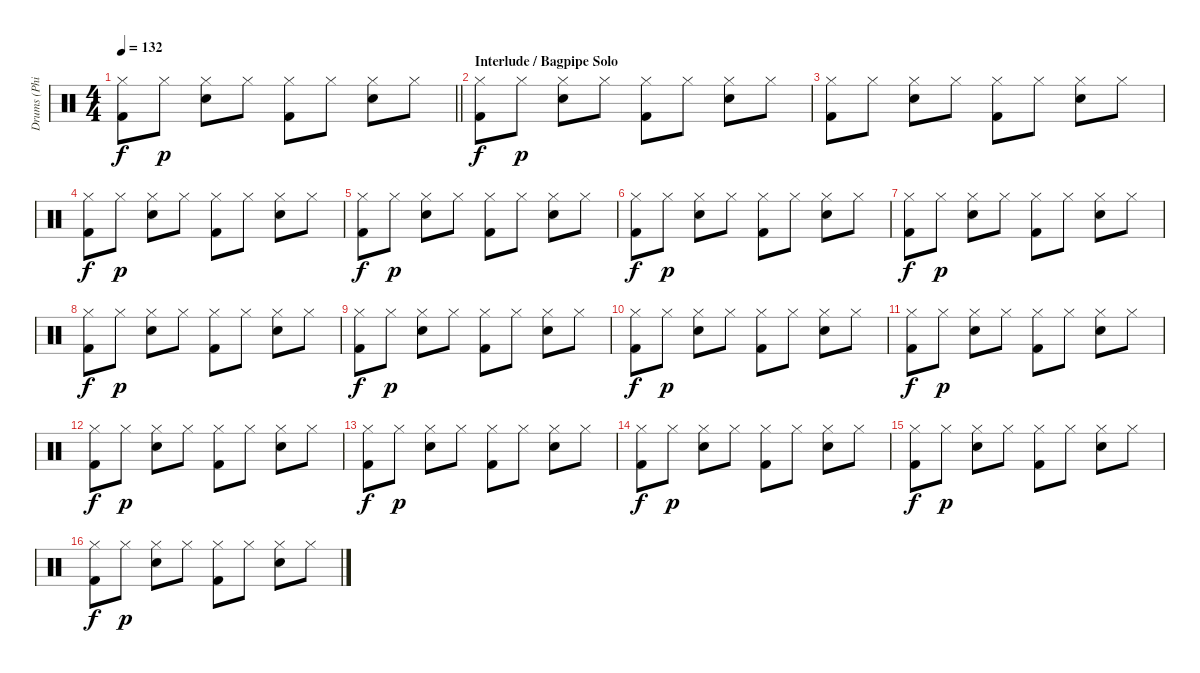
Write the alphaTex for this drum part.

\track ("Drums (Phil Rudd)" "Drums (Phi") {instrument percussion}
\staff {score}
\articulation defaults
\ts (4 4)
\tempo 132
\clef neutral
\barLineRight lightlight
\ks c
("Hi-Hat (closed)" "Kick (hit) 2").8{dy f} "Hi-Hat (closed)".8{dy p} ("Hi-Hat (closed)" "Snare (hit) 2").8 "Hi-Hat (closed)".8 ("Hi-Hat (closed)" "Kick (hit) 2").8 "Hi-Hat (closed)".8 ("Hi-Hat (closed)" "Snare (hit) 2").8 "Hi-Hat (closed)".8 |
\section ("" "Interlude / Bagpipe Solo")
("Hi-Hat (closed)" "Kick (hit) 2").8{dy f} "Hi-Hat (closed)".8{dy p} ("Hi-Hat (closed)" "Snare (hit) 2").8 "Hi-Hat (closed)".8 ("Hi-Hat (closed)" "Kick (hit) 2").8 "Hi-Hat (closed)".8 ("Hi-Hat (closed)" "Snare (hit) 2").8 "Hi-Hat (closed)".8 |
("Hi-Hat (closed)" "Kick (hit) 2").8 "Hi-Hat (closed)".8 ("Hi-Hat (closed)" "Snare (hit) 2").8 "Hi-Hat (closed)".8 ("Hi-Hat (closed)" "Kick (hit) 2").8 "Hi-Hat (closed)".8 ("Hi-Hat (closed)" "Snare (hit) 2").8 "Hi-Hat (closed)".8 |
("Hi-Hat (closed)" "Kick (hit) 2").8{dy f} "Hi-Hat (closed)".8{dy p} ("Hi-Hat (closed)" "Snare (hit) 2").8 "Hi-Hat (closed)".8 ("Hi-Hat (closed)" "Kick (hit) 2").8 "Hi-Hat (closed)".8 ("Hi-Hat (closed)" "Snare (hit) 2").8 "Hi-Hat (closed)".8 |
("Hi-Hat (closed)" "Kick (hit) 2").8{dy f} "Hi-Hat (closed)".8{dy p} ("Hi-Hat (closed)" "Snare (hit) 2").8 "Hi-Hat (closed)".8 ("Hi-Hat (closed)" "Kick (hit) 2").8 "Hi-Hat (closed)".8 ("Hi-Hat (closed)" "Snare (hit) 2").8 "Hi-Hat (closed)".8 |
("Hi-Hat (closed)" "Kick (hit) 2").8{dy f} "Hi-Hat (closed)".8{dy p} ("Hi-Hat (closed)" "Snare (hit) 2").8 "Hi-Hat (closed)".8 ("Hi-Hat (closed)" "Kick (hit) 2").8 "Hi-Hat (closed)".8 ("Hi-Hat (closed)" "Snare (hit) 2").8 "Hi-Hat (closed)".8 |
("Hi-Hat (closed)" "Kick (hit) 2").8{dy f} "Hi-Hat (closed)".8{dy p} ("Hi-Hat (closed)" "Snare (hit) 2").8 "Hi-Hat (closed)".8 ("Hi-Hat (closed)" "Kick (hit) 2").8 "Hi-Hat (closed)".8 ("Hi-Hat (closed)" "Snare (hit) 2").8 "Hi-Hat (closed)".8 |
("Hi-Hat (closed)" "Kick (hit) 2").8{dy f} "Hi-Hat (closed)".8{dy p} ("Hi-Hat (closed)" "Snare (hit) 2").8 "Hi-Hat (closed)".8 ("Hi-Hat (closed)" "Kick (hit) 2").8 "Hi-Hat (closed)".8 ("Hi-Hat (closed)" "Snare (hit) 2").8 "Hi-Hat (closed)".8 |
("Hi-Hat (closed)" "Kick (hit) 2").8{dy f} "Hi-Hat (closed)".8{dy p} ("Hi-Hat (closed)" "Snare (hit) 2").8 "Hi-Hat (closed)".8 ("Hi-Hat (closed)" "Kick (hit) 2").8 "Hi-Hat (closed)".8 ("Hi-Hat (closed)" "Snare (hit) 2").8 "Hi-Hat (closed)".8 |
("Hi-Hat (closed)" "Kick (hit) 2").8{dy f} "Hi-Hat (closed)".8{dy p} ("Hi-Hat (closed)" "Snare (hit) 2").8 "Hi-Hat (closed)".8 ("Hi-Hat (closed)" "Kick (hit) 2").8 "Hi-Hat (closed)".8 ("Hi-Hat (closed)" "Snare (hit) 2").8 "Hi-Hat (closed)".8 |
("Hi-Hat (closed)" "Kick (hit) 2").8{dy f} "Hi-Hat (closed)".8{dy p} ("Hi-Hat (closed)" "Snare (hit) 2").8 "Hi-Hat (closed)".8 ("Hi-Hat (closed)" "Kick (hit) 2").8 "Hi-Hat (closed)".8 ("Hi-Hat (closed)" "Snare (hit) 2").8 "Hi-Hat (closed)".8 |
("Hi-Hat (closed)" "Kick (hit) 2").8{dy f} "Hi-Hat (closed)".8{dy p} ("Hi-Hat (closed)" "Snare (hit) 2").8 "Hi-Hat (closed)".8 ("Hi-Hat (closed)" "Kick (hit) 2").8 "Hi-Hat (closed)".8 ("Hi-Hat (closed)" "Snare (hit) 2").8 "Hi-Hat (closed)".8 |
("Hi-Hat (closed)" "Kick (hit) 2").8{dy f} "Hi-Hat (closed)".8{dy p} ("Hi-Hat (closed)" "Snare (hit) 2").8 "Hi-Hat (closed)".8 ("Hi-Hat (closed)" "Kick (hit) 2").8 "Hi-Hat (closed)".8 ("Hi-Hat (closed)" "Snare (hit) 2").8 "Hi-Hat (closed)".8 |
("Hi-Hat (closed)" "Kick (hit) 2").8{dy f} "Hi-Hat (closed)".8{dy p} ("Hi-Hat (closed)" "Snare (hit) 2").8 "Hi-Hat (closed)".8 ("Hi-Hat (closed)" "Kick (hit) 2").8 "Hi-Hat (closed)".8 ("Hi-Hat (closed)" "Snare (hit) 2").8 "Hi-Hat (closed)".8 |
("Hi-Hat (closed)" "Kick (hit) 2").8{dy f} "Hi-Hat (closed)".8{dy p} ("Hi-Hat (closed)" "Snare (hit) 2").8 "Hi-Hat (closed)".8 ("Hi-Hat (closed)" "Kick (hit) 2").8 "Hi-Hat (closed)".8 ("Hi-Hat (closed)" "Snare (hit) 2").8 "Hi-Hat (closed)".8 |
("Hi-Hat (closed)" "Kick (hit) 2").8{dy f} "Hi-Hat (closed)".8{dy p} ("Hi-Hat (closed)" "Snare (hit) 2").8 "Hi-Hat (closed)".8 ("Hi-Hat (closed)" "Kick (hit) 2").8 "Hi-Hat (closed)".8 ("Hi-Hat (closed)" "Snare (hit) 2").8 "Hi-Hat (closed)".8
